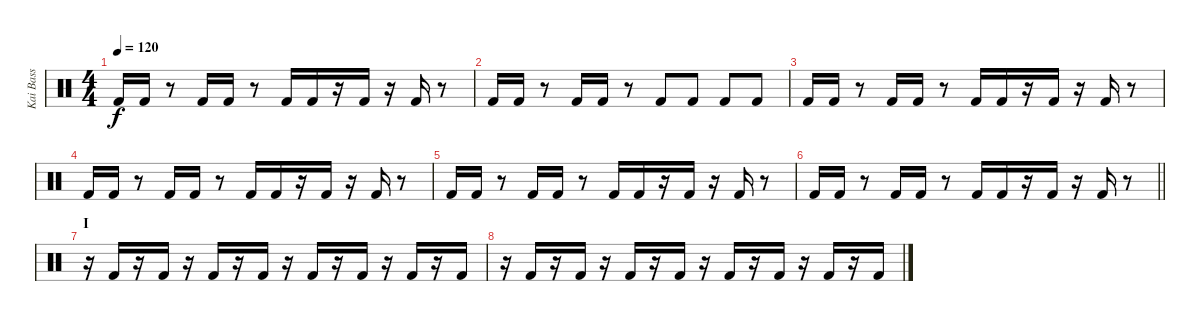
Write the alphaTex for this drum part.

\track ("Kai Bass" "Kai Bass") {instrument percussion}
\staff {score}
\articulation defaults
\ts (4 4)
\tempo 120
\clef neutral
\ks c "Kick (hit) 2".16{dy f} "Kick (hit) 2".16
r.8 "Kick (hit) 2".16 "Kick (hit) 2".16 r.8 "Kick (hit) 2".16 "Kick (hit) 2".16 r.16 "Kick (hit) 2".16 r.16 "Kick (hit) 2".16 r.8 |
"Kick (hit) 2".16 "Kick (hit) 2".16 r.8 "Kick (hit) 2".16 "Kick (hit) 2".16 r.8 "Kick (hit) 2".8 "Kick (hit) 2".8 "Kick (hit) 2".8 "Kick (hit) 2".8 |
"Kick (hit) 2".16 "Kick (hit) 2".16 r.8 "Kick (hit) 2".16 "Kick (hit) 2".16 r.8 "Kick (hit) 2".16 "Kick (hit) 2".16 r.16 "Kick (hit) 2".16 r.16 "Kick (hit) 2".16 r.8 |
"Kick (hit) 2".16 "Kick (hit) 2".16 r.8 "Kick (hit) 2".16 "Kick (hit) 2".16 r.8 "Kick (hit) 2".16 "Kick (hit) 2".16 r.16 "Kick (hit) 2".16 r.16 "Kick (hit) 2".16 r.8 |
"Kick (hit) 2".16 "Kick (hit) 2".16 r.8 "Kick (hit) 2".16 "Kick (hit) 2".16 r.8 "Kick (hit) 2".16 "Kick (hit) 2".16 r.16 "Kick (hit) 2".16 r.16 "Kick (hit) 2".16 r.8 |
\barLineRight lightlight "Kick (hit) 2".16 "Kick (hit) 2".16
r.8 "Kick (hit) 2".16 "Kick (hit) 2".16 r.8 "Kick (hit) 2".16 "Kick (hit) 2".16 r.16 "Kick (hit) 2".16 r.16 "Kick (hit) 2".16 r.8 |
\section ("" "I")
r.16 "Kick (hit) 2".16 r.16 "Kick (hit) 2".16 r.16 "Kick (hit) 2".16 r.16 "Kick (hit) 2".16 r.16 "Kick (hit) 2".16 r.16 "Kick (hit) 2".16 r.16 "Kick (hit) 2".16 r.16 "Kick (hit) 2".16 |
r.16 "Kick (hit) 2".16 r.16 "Kick (hit) 2".16 r.16 "Kick (hit) 2".16 r.16 "Kick (hit) 2".16 r.16 "Kick (hit) 2".16 r.16 "Kick (hit) 2".16 r.16 "Kick (hit) 2".16 r.16 "Kick (hit) 2".16
